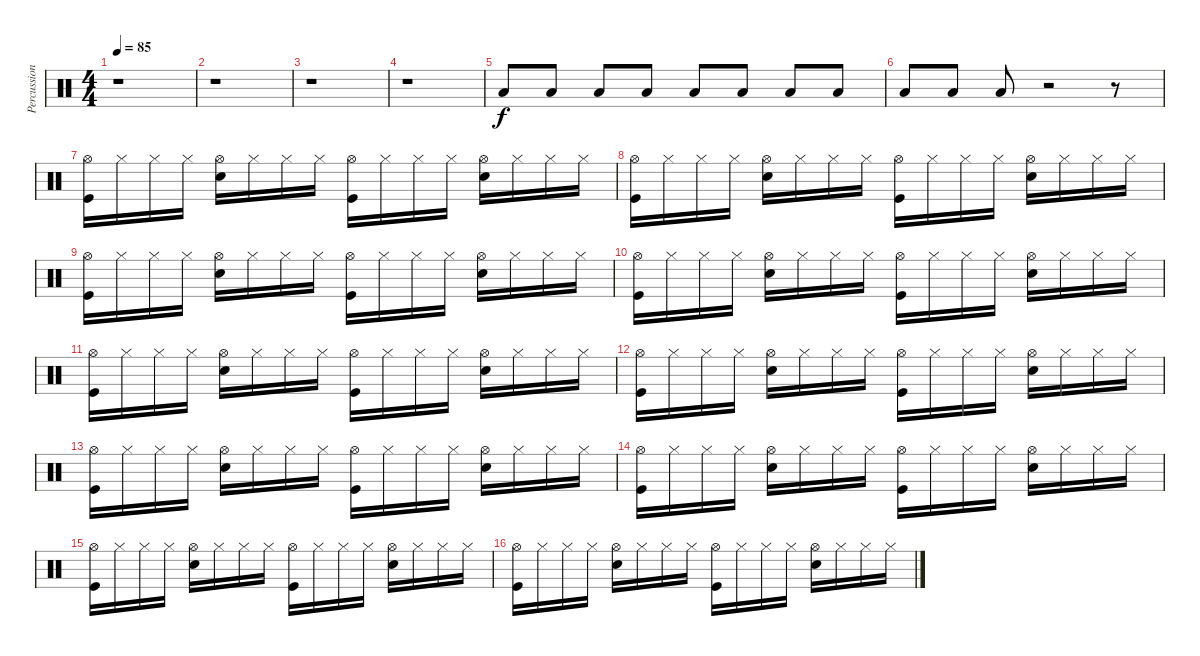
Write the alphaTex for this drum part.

\track ("Percussions" "Percussion") {instrument percussion}
\staff {score}
\articulation defaults
\ts (4 4)
\tempo 85
\clef neutral
\ks c
r.1{dy f} |
r.1 |
r.1 |
r.1 |
"Low Tom (hit)".8 "Low Tom (hit)".8 "Low Tom (hit)".8 "Low Tom (hit)".8 "Low Tom (hit)".8 "Low Tom (hit)".8 "Low Tom (hit)".8 "Low Tom (hit)".8 |
"Low Tom (hit)".8 "Low Tom (hit)".8 "Low Tom (hit)".8 r.2 r.8 |
("Hi-Hat (open)" "Kick (hit)").16 "Hi-Hat (closed)".16 "Hi-Hat (closed)".16 "Hi-Hat (closed)".16 ("Hi-Hat (open)" "Snare (hit) 2").16 "Hi-Hat (closed)".16 "Hi-Hat (closed)".16 "Hi-Hat (closed)".16 ("Hi-Hat (open)" "Kick (hit)").16 "Hi-Hat (closed)".16 "Hi-Hat (closed)".16 "Hi-Hat (closed)".16 ("Hi-Hat (open)" "Snare (hit) 2").16 "Hi-Hat (closed)".16 "Hi-Hat (closed)".16 "Hi-Hat (closed)".16 |
("Hi-Hat (open)" "Kick (hit)").16 "Hi-Hat (closed)".16 "Hi-Hat (closed)".16 "Hi-Hat (closed)".16 ("Hi-Hat (open)" "Snare (hit) 2").16 "Hi-Hat (closed)".16 "Hi-Hat (closed)".16 "Hi-Hat (closed)".16 ("Hi-Hat (open)" "Kick (hit)").16 "Hi-Hat (closed)".16 "Hi-Hat (closed)".16 "Hi-Hat (closed)".16 ("Hi-Hat (open)" "Snare (hit) 2").16 "Hi-Hat (closed)".16 "Hi-Hat (closed)".16 "Hi-Hat (closed)".16 |
("Hi-Hat (open)" "Kick (hit)").16 "Hi-Hat (closed)".16 "Hi-Hat (closed)".16 "Hi-Hat (closed)".16 ("Hi-Hat (open)" "Snare (hit) 2").16 "Hi-Hat (closed)".16 "Hi-Hat (closed)".16 "Hi-Hat (closed)".16 ("Hi-Hat (open)" "Kick (hit)").16 "Hi-Hat (closed)".16 "Hi-Hat (closed)".16 "Hi-Hat (closed)".16 ("Hi-Hat (open)" "Snare (hit) 2").16 "Hi-Hat (closed)".16 "Hi-Hat (closed)".16 "Hi-Hat (closed)".16 |
("Hi-Hat (open)" "Kick (hit)").16 "Hi-Hat (closed)".16 "Hi-Hat (closed)".16 "Hi-Hat (closed)".16 ("Hi-Hat (open)" "Snare (hit) 2").16 "Hi-Hat (closed)".16 "Hi-Hat (closed)".16 "Hi-Hat (closed)".16 ("Hi-Hat (open)" "Kick (hit)").16 "Hi-Hat (closed)".16 "Hi-Hat (closed)".16 "Hi-Hat (closed)".16 ("Hi-Hat (open)" "Snare (hit) 2").16 "Hi-Hat (closed)".16 "Hi-Hat (closed)".16 "Hi-Hat (closed)".16 |
("Hi-Hat (open)" "Kick (hit)").16 "Hi-Hat (closed)".16 "Hi-Hat (closed)".16 "Hi-Hat (closed)".16 ("Hi-Hat (open)" "Snare (hit) 2").16 "Hi-Hat (closed)".16 "Hi-Hat (closed)".16 "Hi-Hat (closed)".16 ("Hi-Hat (open)" "Kick (hit)").16 "Hi-Hat (closed)".16 "Hi-Hat (closed)".16 "Hi-Hat (closed)".16 ("Hi-Hat (open)" "Snare (hit) 2").16 "Hi-Hat (closed)".16 "Hi-Hat (closed)".16 "Hi-Hat (closed)".16 |
("Hi-Hat (open)" "Kick (hit)").16 "Hi-Hat (closed)".16 "Hi-Hat (closed)".16 "Hi-Hat (closed)".16 ("Hi-Hat (open)" "Snare (hit) 2").16 "Hi-Hat (closed)".16 "Hi-Hat (closed)".16 "Hi-Hat (closed)".16 ("Hi-Hat (open)" "Kick (hit)").16 "Hi-Hat (closed)".16 "Hi-Hat (closed)".16 "Hi-Hat (closed)".16 ("Hi-Hat (open)" "Snare (hit) 2").16 "Hi-Hat (closed)".16 "Hi-Hat (closed)".16 "Hi-Hat (closed)".16 |
("Hi-Hat (open)" "Kick (hit)").16 "Hi-Hat (closed)".16 "Hi-Hat (closed)".16 "Hi-Hat (closed)".16 ("Hi-Hat (open)" "Snare (hit) 2").16 "Hi-Hat (closed)".16 "Hi-Hat (closed)".16 "Hi-Hat (closed)".16 ("Hi-Hat (open)" "Kick (hit)").16 "Hi-Hat (closed)".16 "Hi-Hat (closed)".16 "Hi-Hat (closed)".16 ("Hi-Hat (open)" "Snare (hit) 2").16 "Hi-Hat (closed)".16 "Hi-Hat (closed)".16 "Hi-Hat (closed)".16 |
("Hi-Hat (open)" "Kick (hit)").16 "Hi-Hat (closed)".16 "Hi-Hat (closed)".16 "Hi-Hat (closed)".16 ("Hi-Hat (open)" "Snare (hit) 2").16 "Hi-Hat (closed)".16 "Hi-Hat (closed)".16 "Hi-Hat (closed)".16 ("Hi-Hat (open)" "Kick (hit)").16 "Hi-Hat (closed)".16 "Hi-Hat (closed)".16 "Hi-Hat (closed)".16 ("Hi-Hat (open)" "Snare (hit) 2").16 "Hi-Hat (closed)".16 "Hi-Hat (closed)".16 "Hi-Hat (closed)".16 |
("Hi-Hat (open)" "Kick (hit)").16 "Hi-Hat (closed)".16 "Hi-Hat (closed)".16 "Hi-Hat (closed)".16 ("Hi-Hat (open)" "Snare (hit) 2").16 "Hi-Hat (closed)".16 "Hi-Hat (closed)".16 "Hi-Hat (closed)".16 ("Hi-Hat (open)" "Kick (hit)").16 "Hi-Hat (closed)".16 "Hi-Hat (closed)".16 "Hi-Hat (closed)".16 ("Hi-Hat (open)" "Snare (hit) 2").16 "Hi-Hat (closed)".16 "Hi-Hat (closed)".16 "Hi-Hat (closed)".16 |
("Hi-Hat (open)" "Kick (hit)").16 "Hi-Hat (closed)".16 "Hi-Hat (closed)".16 "Hi-Hat (closed)".16 ("Hi-Hat (open)" "Snare (hit) 2").16 "Hi-Hat (closed)".16 "Hi-Hat (closed)".16 "Hi-Hat (closed)".16 ("Hi-Hat (open)" "Kick (hit)").16 "Hi-Hat (closed)".16 "Hi-Hat (closed)".16 "Hi-Hat (closed)".16 ("Hi-Hat (open)" "Snare (hit) 2").16 "Hi-Hat (closed)".16 "Hi-Hat (closed)".16 "Hi-Hat (closed)".16
